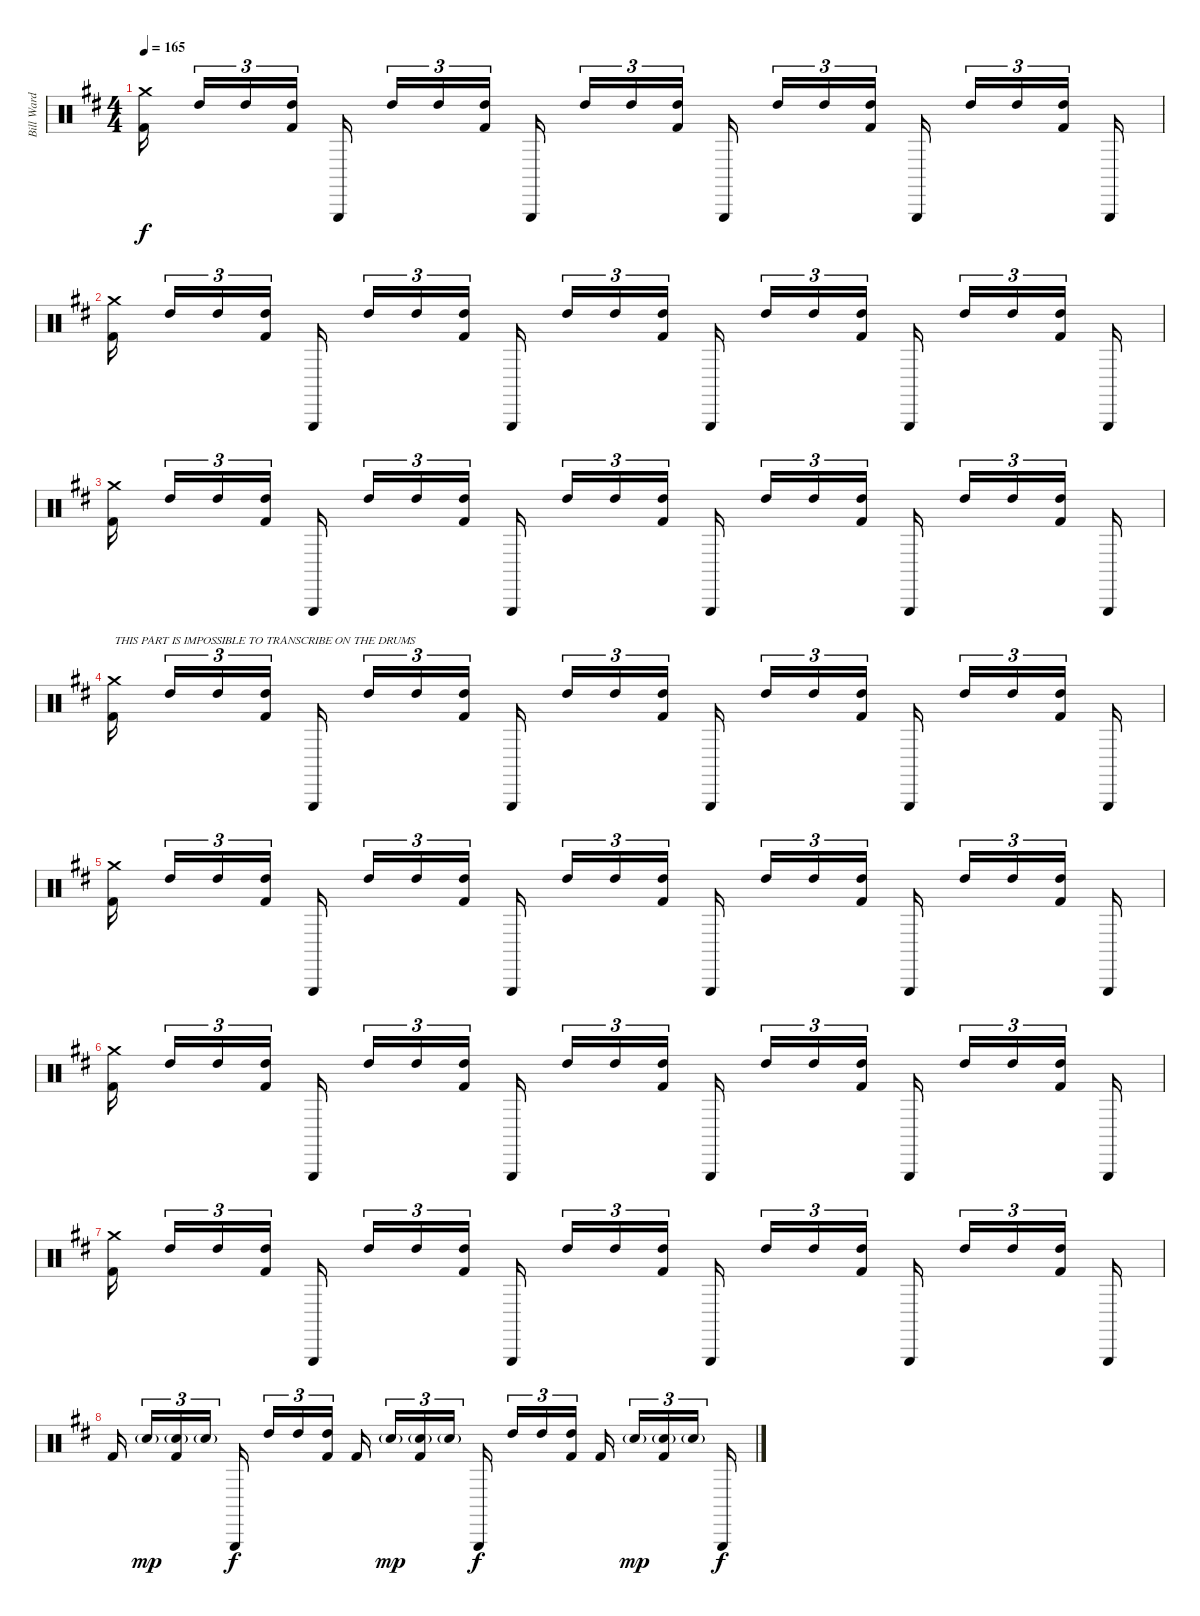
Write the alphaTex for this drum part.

\track ("Bill Ward" "Bill Ward") {instrument percussion}
\staff {score}
\articulation defaults
\ts (4 4)
\tempo 165
\clef neutral
\ks d
("Crash medium (hit)" "Kick (hit) 2").16{dy f beam splitsecondary} "High Tom (hit)".16{tu (3 2)} "High Tom (hit)".16{tu (3 2)} ("High Tom (hit)" "Kick (hit) 2").16{tu (3 2) beam splitsecondary} "Triangle (hit)".16 "High Tom (hit)".16{tu (3 2)} "High Tom (hit)".16{tu (3 2)} ("High Tom (hit)" "Kick (hit) 2").16{tu (3 2) beam splitsecondary} "Triangle (hit)".16{beam splitsecondary} "High Tom (hit)".16{tu (3 2)} "High Tom (hit)".16{tu (3 2)} ("High Tom (hit)" "Kick (hit) 2").16{tu (3 2) beam splitsecondary} "Triangle (hit)".16{beam splitsecondary} "High Tom (hit)".16{tu (3 2)} "High Tom (hit)".16{tu (3 2)} ("High Tom (hit)" "Kick (hit) 2").16{tu (3 2)} "Triangle (hit)".16{beam splitsecondary} "High Tom (hit)".16{tu (3 2)} "High Tom (hit)".16{tu (3 2)} ("High Tom (hit)" "Kick (hit) 2").16{tu (3 2) beam splitsecondary} "Triangle (hit)".16 |
("Crash medium (hit)" "Kick (hit) 2").16{beam splitsecondary} "High Tom (hit)".16{tu (3 2)} "High Tom (hit)".16{tu (3 2)} ("High Tom (hit)" "Kick (hit) 2").16{tu (3 2) beam splitsecondary} "Triangle (hit)".16 "High Tom (hit)".16{tu (3 2)} "High Tom (hit)".16{tu (3 2)} ("High Tom (hit)" "Kick (hit) 2").16{tu (3 2) beam splitsecondary} "Triangle (hit)".16{beam splitsecondary} "High Tom (hit)".16{tu (3 2)} "High Tom (hit)".16{tu (3 2)} ("High Tom (hit)" "Kick (hit) 2").16{tu (3 2) beam splitsecondary} "Triangle (hit)".16{beam splitsecondary} "High Tom (hit)".16{tu (3 2)} "High Tom (hit)".16{tu (3 2)} ("High Tom (hit)" "Kick (hit) 2").16{tu (3 2)} "Triangle (hit)".16{beam splitsecondary} "High Tom (hit)".16{tu (3 2)} "High Tom (hit)".16{tu (3 2)} ("High Tom (hit)" "Kick (hit) 2").16{tu (3 2) beam splitsecondary} "Triangle (hit)".16 |
("Crash medium (hit)" "Kick (hit) 2").16{beam splitsecondary} "High Tom (hit)".16{tu (3 2)} "High Tom (hit)".16{tu (3 2)} ("High Tom (hit)" "Kick (hit) 2").16{tu (3 2) beam splitsecondary} "Triangle (hit)".16 "High Tom (hit)".16{tu (3 2)} "High Tom (hit)".16{tu (3 2)} ("High Tom (hit)" "Kick (hit) 2").16{tu (3 2) beam splitsecondary} "Triangle (hit)".16{beam splitsecondary} "High Tom (hit)".16{tu (3 2)} "High Tom (hit)".16{tu (3 2)} ("High Tom (hit)" "Kick (hit) 2").16{tu (3 2) beam splitsecondary} "Triangle (hit)".16{beam splitsecondary} "High Tom (hit)".16{tu (3 2)} "High Tom (hit)".16{tu (3 2)} ("High Tom (hit)" "Kick (hit) 2").16{tu (3 2)} "Triangle (hit)".16{beam splitsecondary} "High Tom (hit)".16{tu (3 2)} "High Tom (hit)".16{tu (3 2)} ("High Tom (hit)" "Kick (hit) 2").16{tu (3 2) beam splitsecondary} "Triangle (hit)".16 |
("Crash medium (hit)" "Kick (hit) 2").16{txt "THIS PART IS IMPOSSIBLE TO TRANSCRIBE ON THE DRUMS" beam splitsecondary} "High Tom (hit)".16{tu (3 2)} "High Tom (hit)".16{tu (3 2)} ("High Tom (hit)" "Kick (hit) 2").16{tu (3 2) beam splitsecondary} "Triangle (hit)".16 "High Tom (hit)".16{tu (3 2)} "High Tom (hit)".16{tu (3 2)} ("High Tom (hit)" "Kick (hit) 2").16{tu (3 2) beam splitsecondary} "Triangle (hit)".16{beam splitsecondary} "High Tom (hit)".16{tu (3 2)} "High Tom (hit)".16{tu (3 2)} ("High Tom (hit)" "Kick (hit) 2").16{tu (3 2) beam splitsecondary} "Triangle (hit)".16{beam splitsecondary} "High Tom (hit)".16{tu (3 2)} "High Tom (hit)".16{tu (3 2)} ("High Tom (hit)" "Kick (hit) 2").16{tu (3 2)} "Triangle (hit)".16{beam splitsecondary} "High Tom (hit)".16{tu (3 2)} "High Tom (hit)".16{tu (3 2)} ("High Tom (hit)" "Kick (hit) 2").16{tu (3 2) beam splitsecondary} "Triangle (hit)".16 |
("Crash medium (hit)" "Kick (hit) 2").16{beam splitsecondary} "High Tom (hit)".16{tu (3 2)} "High Tom (hit)".16{tu (3 2)} ("High Tom (hit)" "Kick (hit) 2").16{tu (3 2) beam splitsecondary} "Triangle (hit)".16 "High Tom (hit)".16{tu (3 2)} "High Tom (hit)".16{tu (3 2)} ("High Tom (hit)" "Kick (hit) 2").16{tu (3 2) beam splitsecondary} "Triangle (hit)".16{beam splitsecondary} "High Tom (hit)".16{tu (3 2)} "High Tom (hit)".16{tu (3 2)} ("High Tom (hit)" "Kick (hit) 2").16{tu (3 2) beam splitsecondary} "Triangle (hit)".16{beam splitsecondary} "High Tom (hit)".16{tu (3 2)} "High Tom (hit)".16{tu (3 2)} ("High Tom (hit)" "Kick (hit) 2").16{tu (3 2)} "Triangle (hit)".16{beam splitsecondary} "High Tom (hit)".16{tu (3 2)} "High Tom (hit)".16{tu (3 2)} ("High Tom (hit)" "Kick (hit) 2").16{tu (3 2) beam splitsecondary} "Triangle (hit)".16 |
("Crash medium (hit)" "Kick (hit) 2").16{beam splitsecondary} "High Tom (hit)".16{tu (3 2)} "High Tom (hit)".16{tu (3 2)} ("High Tom (hit)" "Kick (hit) 2").16{tu (3 2) beam splitsecondary} "Triangle (hit)".16 "High Tom (hit)".16{tu (3 2)} "High Tom (hit)".16{tu (3 2)} ("High Tom (hit)" "Kick (hit) 2").16{tu (3 2) beam splitsecondary} "Triangle (hit)".16{beam splitsecondary} "High Tom (hit)".16{tu (3 2)} "High Tom (hit)".16{tu (3 2)} ("High Tom (hit)" "Kick (hit) 2").16{tu (3 2) beam splitsecondary} "Triangle (hit)".16{beam splitsecondary} "High Tom (hit)".16{tu (3 2)} "High Tom (hit)".16{tu (3 2)} ("High Tom (hit)" "Kick (hit) 2").16{tu (3 2)} "Triangle (hit)".16{beam splitsecondary} "High Tom (hit)".16{tu (3 2)} "High Tom (hit)".16{tu (3 2)} ("High Tom (hit)" "Kick (hit) 2").16{tu (3 2) beam splitsecondary} "Triangle (hit)".16 |
("Crash medium (hit)" "Kick (hit) 2").16{beam splitsecondary} "High Tom (hit)".16{tu (3 2)} "High Tom (hit)".16{tu (3 2)} ("High Tom (hit)" "Kick (hit) 2").16{tu (3 2) beam splitsecondary} "Triangle (hit)".16 "High Tom (hit)".16{tu (3 2)} "High Tom (hit)".16{tu (3 2)} ("High Tom (hit)" "Kick (hit) 2").16{tu (3 2) beam splitsecondary} "Triangle (hit)".16{beam splitsecondary} "High Tom (hit)".16{tu (3 2)} "High Tom (hit)".16{tu (3 2)} ("High Tom (hit)" "Kick (hit) 2").16{tu (3 2) beam splitsecondary} "Triangle (hit)".16{beam splitsecondary} "High Tom (hit)".16{tu (3 2)} "High Tom (hit)".16{tu (3 2)} ("High Tom (hit)" "Kick (hit) 2").16{tu (3 2)} "Triangle (hit)".16{beam splitsecondary} "High Tom (hit)".16{tu (3 2)} "High Tom (hit)".16{tu (3 2)} ("High Tom (hit)" "Kick (hit) 2").16{tu (3 2) beam splitsecondary} "Triangle (hit)".16 |
"Kick (hit) 2".16{beam splitsecondary} "Electric Snare (hit)"{g}.16{tu (3 2) dy mp} ("Electric Snare (hit)"{g} "Kick (hit) 2").16{tu (3 2)} "Electric Snare (hit)"{g}.16{tu (3 2) beam splitsecondary} "Triangle (hit)".16{dy f} "High Tom (hit)".16{tu (3 2)} "High Tom (hit)".16{tu (3 2)} ("High Tom (hit)" "Kick (hit) 2").16{tu (3 2) beam splitsecondary} "Kick (hit) 2".16{beam splitsecondary} "Electric Snare (hit)"{g}.16{tu (3 2) dy mp} ("Electric Snare (hit)"{g} "Kick (hit) 2").16{tu (3 2)} "Electric Snare (hit)"{g}.16{tu (3 2) beam splitsecondary} "Triangle (hit)".16{dy f beam splitsecondary} "High Tom (hit)".16{tu (3 2)} "High Tom (hit)".16{tu (3 2)} ("High Tom (hit)" "Kick (hit) 2").16{tu (3 2)} "Kick (hit) 2".16{beam splitsecondary} "Electric Snare (hit)"{g}.16{tu (3 2) dy mp} ("Electric Snare (hit)"{g} "Kick (hit) 2").16{tu (3 2)} "Electric Snare (hit)"{g}.16{tu (3 2) beam splitsecondary} "Triangle (hit)".16{dy f}
